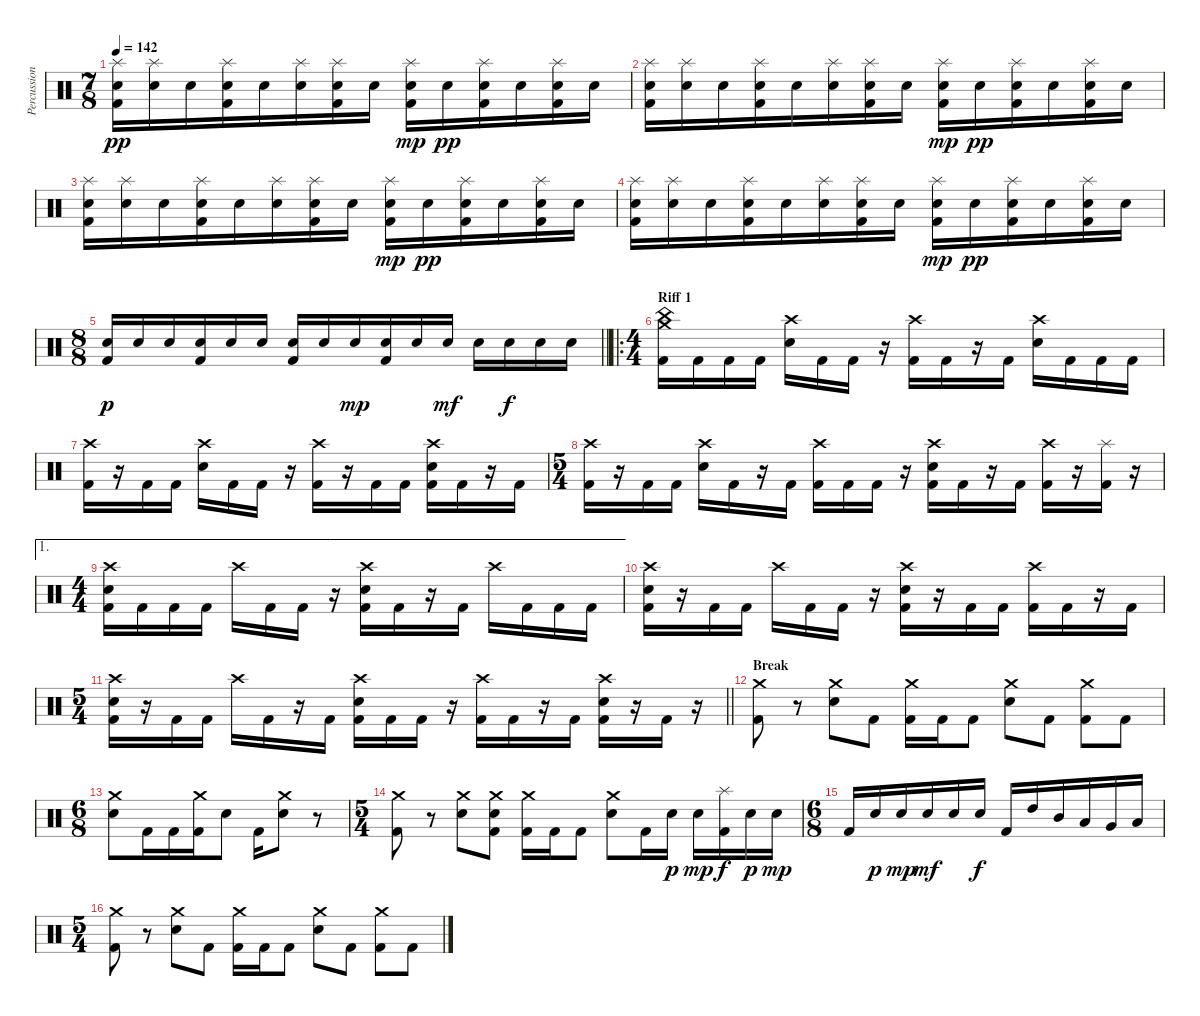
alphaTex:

\track ("Percussions" "Percussion") {instrument percussion}
\staff {score}
\articulation defaults
\ts (7 8)
\tempo 142
\clef neutral
\ks c
("Splash (hit)" "Electric Snare (hit)" "Kick (hit) 2").16{dy pp} ("Splash (hit)" "Electric Snare (hit)").16 "Electric Snare (hit)".16 ("Splash (hit)" "Electric Snare (hit)" "Kick (hit) 2").16 "Electric Snare (hit)".16 ("Splash (hit)" "Electric Snare (hit)").16 ("Splash (hit)" "Electric Snare (hit)" "Kick (hit) 2").16 "Electric Snare (hit)".16 ("Splash (hit)" "Electric Snare (hit)" "Kick (hit) 2").16{dy mp} "Electric Snare (hit)".16{dy pp} ("Splash (hit)" "Electric Snare (hit)" "Kick (hit) 2").16 "Electric Snare (hit)".16 ("Splash (hit)" "Electric Snare (hit)" "Kick (hit) 2").16 "Electric Snare (hit)".16 |
("Splash (hit)" "Electric Snare (hit)" "Kick (hit) 2").16 ("Splash (hit)" "Electric Snare (hit)").16 "Electric Snare (hit)".16 ("Splash (hit)" "Electric Snare (hit)" "Kick (hit) 2").16 "Electric Snare (hit)".16 ("Splash (hit)" "Electric Snare (hit)").16 ("Splash (hit)" "Electric Snare (hit)" "Kick (hit) 2").16 "Electric Snare (hit)".16 ("Splash (hit)" "Electric Snare (hit)" "Kick (hit) 2").16{dy mp} "Electric Snare (hit)".16{dy pp} ("Splash (hit)" "Electric Snare (hit)" "Kick (hit) 2").16 "Electric Snare (hit)".16 ("Splash (hit)" "Electric Snare (hit)" "Kick (hit) 2").16 "Electric Snare (hit)".16 |
("Splash (hit)" "Electric Snare (hit)" "Kick (hit) 2").16 ("Splash (hit)" "Electric Snare (hit)").16 "Electric Snare (hit)".16 ("Splash (hit)" "Electric Snare (hit)" "Kick (hit) 2").16 "Electric Snare (hit)".16 ("Splash (hit)" "Electric Snare (hit)").16 ("Splash (hit)" "Electric Snare (hit)" "Kick (hit) 2").16 "Electric Snare (hit)".16 ("Splash (hit)" "Electric Snare (hit)" "Kick (hit) 2").16{dy mp} "Electric Snare (hit)".16{dy pp} ("Splash (hit)" "Electric Snare (hit)" "Kick (hit) 2").16 "Electric Snare (hit)".16 ("Splash (hit)" "Electric Snare (hit)" "Kick (hit) 2").16 "Electric Snare (hit)".16 |
("Splash (hit)" "Electric Snare (hit)" "Kick (hit) 2").16 ("Splash (hit)" "Electric Snare (hit)").16 "Electric Snare (hit)".16 ("Splash (hit)" "Electric Snare (hit)" "Kick (hit) 2").16 "Electric Snare (hit)".16 ("Splash (hit)" "Electric Snare (hit)").16 ("Splash (hit)" "Electric Snare (hit)" "Kick (hit) 2").16 "Electric Snare (hit)".16 ("Splash (hit)" "Electric Snare (hit)" "Kick (hit) 2").16{dy mp} "Electric Snare (hit)".16{dy pp} ("Splash (hit)" "Electric Snare (hit)" "Kick (hit) 2").16 "Electric Snare (hit)".16 ("Splash (hit)" "Electric Snare (hit)" "Kick (hit) 2").16 "Electric Snare (hit)".16 |
\ts (8 8)
\barLineRight lightlight
("Electric Snare (hit)" "Kick (hit) 2").16{dy p} "Electric Snare (hit)".16 "Electric Snare (hit)".16 ("Electric Snare (hit)" "Kick (hit) 2").16 "Electric Snare (hit)".16 "Electric Snare (hit)".16 ("Electric Snare (hit)" "Kick (hit) 2").16 "Electric Snare (hit)".16 "Electric Snare (hit)".16{dy mp} ("Electric Snare (hit)" "Kick (hit) 2").16 "Electric Snare (hit)".16 "Electric Snare (hit)".16{dy mf} "Electric Snare (hit)".16 "Electric Snare (hit)".16{dy f} "Electric Snare (hit)".16 "Electric Snare (hit)".16 |
\ro
\ts (4 4)
\section ("" "Riff 1")
("Crash medium (hit)" "China (hit)" "Kick (hit) 2").16 "Kick (hit) 2".16 "Kick (hit) 2".16 "Kick (hit) 2".16 ("Crash high (hit)" "Electric Snare (hit)").16 "Kick (hit) 2".16 "Kick (hit) 2".16 r.16 ("Crash high (hit)" "Kick (hit) 2").16 "Kick (hit) 2".16 r.16 "Kick (hit) 2".16 ("Crash high (hit)" "Electric Snare (hit)").16 "Kick (hit) 2".16 "Kick (hit) 2".16 "Kick (hit) 2".16 |
("Crash high (hit)" "Kick (hit) 2").16 r.16 "Kick (hit) 2".16 "Kick (hit) 2".16 ("Crash high (hit)" "Electric Snare (hit)").16 "Kick (hit) 2".16 "Kick (hit) 2".16 r.16 ("Crash high (hit)" "Kick (hit) 2").16 r.16 "Kick (hit) 2".16 "Kick (hit) 2".16 ("Crash high (hit)" "Electric Snare (hit)" "Kick (hit) 2").16 "Kick (hit) 2".16 r.16 "Kick (hit) 2".16 |
\ts (5 4)
("Crash high (hit)" "Kick (hit) 2").16 r.16 "Kick (hit) 2".16 "Kick (hit) 2".16 ("Crash high (hit)" "Electric Snare (hit)").16 "Kick (hit) 2".16 r.16 "Kick (hit) 2".16 ("Crash high (hit)" "Kick (hit) 2").16 "Kick (hit) 2".16 "Kick (hit) 2".16 r.16 ("Crash high (hit)" "Electric Snare (hit)" "Kick (hit) 2").16 "Kick (hit) 2".16 r.16 "Kick (hit) 2".16 ("Crash high (hit)" "Kick (hit) 2").16 r.16 ("Splash (hit)" "Kick (hit) 2").16 r.16 |
\ae 1
\ts (4 4)
("Crash high (hit)" "Electric Snare (hit)" "Kick (hit) 2").16 "Kick (hit) 2".16 "Kick (hit) 2".16 "Kick (hit) 2".16 "Crash high (hit)".16 "Kick (hit) 2".16 "Kick (hit) 2".16 r.16 ("Crash high (hit)" "Electric Snare (hit)" "Kick (hit) 2").16 "Kick (hit) 2".16 r.16 "Kick (hit) 2".16 "Crash high (hit)".16 "Kick (hit) 2".16 "Kick (hit) 2".16 "Kick (hit) 2".16 |
("Crash high (hit)" "Electric Snare (hit)" "Kick (hit) 2").16 r.16 "Kick (hit) 2".16 "Kick (hit) 2".16 "Crash high (hit)".16 "Kick (hit) 2".16 "Kick (hit) 2".16 r.16 ("Crash high (hit)" "Electric Snare (hit)" "Kick (hit) 2").16 r.16 "Kick (hit) 2".16 "Kick (hit) 2".16 ("Crash high (hit)" "Kick (hit) 2").16 "Kick (hit) 2".16 r.16 "Kick (hit) 2".16 |
\ts (5 4)
\barLineRight lightlight
("Crash high (hit)" "Electric Snare (hit)" "Kick (hit) 2").16 r.16 "Kick (hit) 2".16 "Kick (hit) 2".16 "Crash high (hit)".16 "Kick (hit) 2".16 r.16 "Kick (hit) 2".16 ("Crash high (hit)" "Electric Snare (hit)" "Kick (hit) 2").16 "Kick (hit) 2".16 "Kick (hit) 2".16 r.16 ("Crash high (hit)" "Kick (hit) 2").16 "Kick (hit) 2".16 r.16 "Kick (hit) 2".16 ("Crash high (hit)" "Electric Snare (hit)" "Kick (hit) 2").16 r.16 "Kick (hit) 2".16 r.16 |
\section ("" "Break")
("Crash medium (hit)" "Kick (hit) 2").8 r.8 ("Crash medium (hit)" "Electric Snare (hit)").8 "Kick (hit) 2".8 ("Crash medium (hit)" "Kick (hit) 2").16 "Kick (hit) 2".16 "Kick (hit) 2".8 ("Crash medium (hit)" "Electric Snare (hit)").8 "Kick (hit) 2".8 ("Crash medium (hit)" "Kick (hit) 2").8 "Kick (hit) 2".8 |
\ts (6 8)
("Crash medium (hit)" "Electric Snare (hit)").8 "Kick (hit) 2".16 "Kick (hit) 2".16 ("Crash medium (hit)" "Kick (hit) 2").16 "Electric Snare (hit)".8 "Kick (hit) 2".16 ("Crash medium (hit)" "Electric Snare (hit)").8 r.8 |
\ts (5 4)
("Crash medium (hit)" "Kick (hit) 2").8 r.8 ("Crash medium (hit)" "Electric Snare (hit)").8 ("Crash medium (hit)" "Electric Snare (hit)" "Kick (hit) 2").8 ("Crash medium (hit)" "Kick (hit) 2").16 "Kick (hit) 2".16 "Kick (hit) 2".8 ("Crash medium (hit)" "Electric Snare (hit)").8 "Kick (hit) 2".16 "Electric Snare (hit)".16{dy p} "Electric Snare (hit)".16{dy mp} ("Splash (hit)" "Kick (hit) 2").16{dy f} "Electric Snare (hit)".16{dy p} "Electric Snare (hit)".16{dy mp} |
\ts (6 8)
"Kick (hit) 2".16 "Electric Snare (hit)".16{dy p} "Electric Snare (hit)".16{dy mp} "Electric Snare (hit)".16{dy mf} "Electric Snare (hit)".16 "Electric Snare (hit)".16{dy f} "Kick (hit) 2".16 "High Tom (hit)".16 "Mid Tom (hit)".16 "Low Tom (hit)".16 "Very Low Tom (hit)".16 "Low Floor Tom (hit)".16 |
\ts (5 4)
("Crash medium (hit)" "Kick (hit) 2").8 r.8 ("Crash medium (hit)" "Electric Snare (hit)").8 "Kick (hit) 2".8 ("Crash medium (hit)" "Kick (hit) 2").16 "Kick (hit) 2".16 "Kick (hit) 2".8 ("Crash medium (hit)" "Electric Snare (hit)").8 "Kick (hit) 2".8 ("Crash medium (hit)" "Kick (hit) 2").8 "Kick (hit) 2".8
